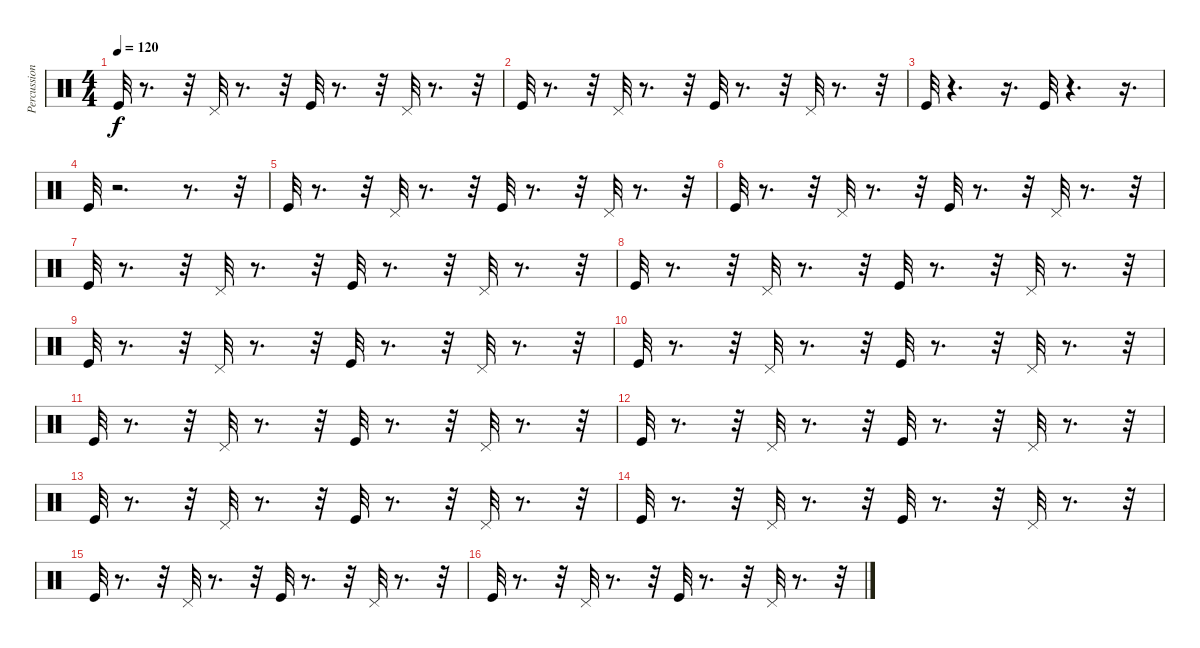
\track ("Percussion" "Percussion") {instrument percussion}
\staff {score}
\articulation defaults
\ts (4 4)
\tempo 120
\clef neutral
\ks c "Kick (hit)".32{dy f}
r.8{d} r.32 "Pedal Hi-Hat (hit)".32 r.8{d} r.32 "Kick (hit)".32 r.8{d} r.32 "Pedal Hi-Hat (hit)".32 r.8{d} r.32 |
"Kick (hit)".32 r.8{d} r.32 "Pedal Hi-Hat (hit)".32 r.8{d} r.32 "Kick (hit)".32 r.8{d} r.32 "Pedal Hi-Hat (hit)".32 r.8{d} r.32 |
"Kick (hit)".32 r.4{d} r.16{d} "Kick (hit)".32 r.4{d} r.16{d} |
"Kick (hit)".32 r.2{d} r.8{d} r.32 |
"Kick (hit)".32 r.8{d} r.32 "Pedal Hi-Hat (hit)".32 r.8{d} r.32 "Kick (hit)".32 r.8{d} r.32 "Pedal Hi-Hat (hit)".32 r.8{d} r.32 |
"Kick (hit)".32 r.8{d} r.32 "Pedal Hi-Hat (hit)".32 r.8{d} r.32 "Kick (hit)".32 r.8{d} r.32 "Pedal Hi-Hat (hit)".32 r.8{d} r.32 |
"Kick (hit)".32 r.8{d} r.32 "Pedal Hi-Hat (hit)".32 r.8{d} r.32 "Kick (hit)".32 r.8{d} r.32 "Pedal Hi-Hat (hit)".32 r.8{d} r.32 |
"Kick (hit)".32 r.8{d} r.32 "Pedal Hi-Hat (hit)".32 r.8{d} r.32 "Kick (hit)".32 r.8{d} r.32 "Pedal Hi-Hat (hit)".32 r.8{d} r.32 |
"Kick (hit)".32 r.8{d} r.32 "Pedal Hi-Hat (hit)".32 r.8{d} r.32 "Kick (hit)".32 r.8{d} r.32 "Pedal Hi-Hat (hit)".32 r.8{d} r.32 |
"Kick (hit)".32 r.8{d} r.32 "Pedal Hi-Hat (hit)".32 r.8{d} r.32 "Kick (hit)".32 r.8{d} r.32 "Pedal Hi-Hat (hit)".32 r.8{d} r.32 |
"Kick (hit)".32 r.8{d} r.32 "Pedal Hi-Hat (hit)".32 r.8{d} r.32 "Kick (hit)".32 r.8{d} r.32 "Pedal Hi-Hat (hit)".32 r.8{d} r.32 |
"Kick (hit)".32 r.8{d} r.32 "Pedal Hi-Hat (hit)".32 r.8{d} r.32 "Kick (hit)".32 r.8{d} r.32 "Pedal Hi-Hat (hit)".32 r.8{d} r.32 |
"Kick (hit)".32 r.8{d} r.32 "Pedal Hi-Hat (hit)".32 r.8{d} r.32 "Kick (hit)".32 r.8{d} r.32 "Pedal Hi-Hat (hit)".32 r.8{d} r.32 |
"Kick (hit)".32 r.8{d} r.32 "Pedal Hi-Hat (hit)".32 r.8{d} r.32 "Kick (hit)".32 r.8{d} r.32 "Pedal Hi-Hat (hit)".32 r.8{d} r.32 |
"Kick (hit)".32 r.8{d} r.32 "Pedal Hi-Hat (hit)".32 r.8{d} r.32 "Kick (hit)".32 r.8{d} r.32 "Pedal Hi-Hat (hit)".32 r.8{d} r.32 |
"Kick (hit)".32 r.8{d} r.32 "Pedal Hi-Hat (hit)".32 r.8{d} r.32 "Kick (hit)".32 r.8{d} r.32 "Pedal Hi-Hat (hit)".32 r.8{d} r.32
